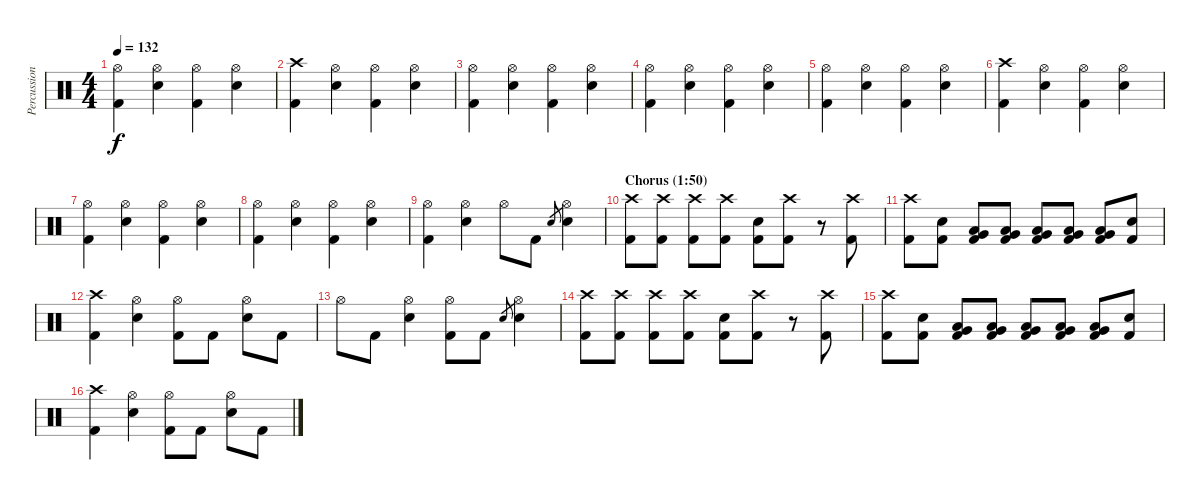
\track ("Percussion" "Percussion") {instrument percussion}
\staff {score}
\articulation defaults
\ts (4 4)
\tempo 132
\clef neutral
\ks c
("Kick (hit) 2" "Hi-Hat (open)").4{dy f} ("Electric Snare (hit)" "Hi-Hat (open)").4 ("Kick (hit) 2" "Hi-Hat (open)").4 ("Electric Snare (hit)" "Hi-Hat (open)").4 |
("Kick (hit) 2" "Crash high (hit)").4 ("Electric Snare (hit)" "Hi-Hat (open)").4 ("Kick (hit) 2" "Hi-Hat (open)").4 ("Electric Snare (hit)" "Hi-Hat (open)").4 |
("Kick (hit) 2" "Hi-Hat (open)").4 ("Electric Snare (hit)" "Hi-Hat (open)").4 ("Kick (hit) 2" "Hi-Hat (open)").4 ("Electric Snare (hit)" "Hi-Hat (open)").4 |
("Kick (hit) 2" "Hi-Hat (open)").4 ("Electric Snare (hit)" "Hi-Hat (open)").4 ("Kick (hit) 2" "Hi-Hat (open)").4 ("Electric Snare (hit)" "Hi-Hat (open)").4 |
("Kick (hit) 2" "Hi-Hat (open)").4 ("Electric Snare (hit)" "Hi-Hat (open)").4 ("Kick (hit) 2" "Hi-Hat (open)").4 ("Electric Snare (hit)" "Hi-Hat (open)").4 |
("Kick (hit) 2" "Crash high (hit)").4 ("Electric Snare (hit)" "Hi-Hat (open)").4 ("Kick (hit) 2" "Hi-Hat (open)").4 ("Electric Snare (hit)" "Hi-Hat (open)").4 |
("Kick (hit) 2" "Hi-Hat (open)").4 ("Electric Snare (hit)" "Hi-Hat (open)").4 ("Kick (hit) 2" "Hi-Hat (open)").4 ("Electric Snare (hit)" "Hi-Hat (open)").4 |
("Kick (hit) 2" "Hi-Hat (open)").4 ("Electric Snare (hit)" "Hi-Hat (open)").4 ("Kick (hit) 2" "Hi-Hat (open)").4 ("Electric Snare (hit)" "Hi-Hat (open)").4 |
("Kick (hit) 2" "Hi-Hat (open)").4 ("Electric Snare (hit)" "Hi-Hat (open)").4 "Hi-Hat (open)".8 "Kick (hit) 2".8 "Electric Snare (hit)".8{gr} ("Electric Snare (hit)" "Hi-Hat (open)").4 |
\section ("" "Chorus (1:50)")
("Kick (hit) 2" "Crash high (hit)").8 ("Kick (hit) 2" "Crash high (hit)").8 ("Kick (hit) 2" "Crash high (hit)").8 ("Kick (hit) 2" "Crash high (hit)").8 ("Kick (hit) 2" "Electric Snare (hit)").8 ("Kick (hit) 2" "Crash high (hit)").8 r.8 ("Kick (hit) 2" "Crash high (hit)").8 |
("Kick (hit) 2" "Crash high (hit)").8 ("Kick (hit) 2" "Electric Snare (hit)").8 ("Kick (hit) 2" "Low Tom (hit)" "Very Low Tom (hit)").8 ("Kick (hit) 2" "Low Tom (hit)" "Very Low Tom (hit)").8 ("Kick (hit) 2" "Low Tom (hit)" "Very Low Tom (hit)").8 ("Kick (hit) 2" "Low Tom (hit)" "Very Low Tom (hit)").8 ("Kick (hit) 2" "Low Tom (hit)" "Very Low Tom (hit)").8 ("Kick (hit) 2" "Electric Snare (hit)").8 |
("Kick (hit) 2" "Crash high (hit)").4 ("Electric Snare (hit)" "Hi-Hat (open)").4 ("Kick (hit) 2" "Hi-Hat (open)").8 "Kick (hit) 2".8 ("Electric Snare (hit)" "Hi-Hat (open)").8 "Kick (hit) 2".8 |
"Hi-Hat (open)".8 "Kick (hit) 2".8 ("Electric Snare (hit)" "Hi-Hat (open)").4 ("Kick (hit) 2" "Hi-Hat (open)").8 "Kick (hit) 2".8 "Electric Snare (hit)".8{gr} ("Electric Snare (hit)" "Hi-Hat (open)").4 |
("Kick (hit) 2" "Crash high (hit)").8 ("Kick (hit) 2" "Crash high (hit)").8 ("Kick (hit) 2" "Crash high (hit)").8 ("Kick (hit) 2" "Crash high (hit)").8 ("Kick (hit) 2" "Electric Snare (hit)").8 ("Kick (hit) 2" "Crash high (hit)").8 r.8 ("Kick (hit) 2" "Crash high (hit)").8 |
("Kick (hit) 2" "Crash high (hit)").8 ("Kick (hit) 2" "Electric Snare (hit)").8 ("Kick (hit) 2" "Low Tom (hit)" "Very Low Tom (hit)").8 ("Kick (hit) 2" "Low Tom (hit)" "Very Low Tom (hit)").8 ("Kick (hit) 2" "Low Tom (hit)" "Very Low Tom (hit)").8 ("Kick (hit) 2" "Low Tom (hit)" "Very Low Tom (hit)").8 ("Kick (hit) 2" "Low Tom (hit)" "Very Low Tom (hit)").8 ("Kick (hit) 2" "Electric Snare (hit)").8 |
("Kick (hit) 2" "Crash high (hit)").4 ("Electric Snare (hit)" "Hi-Hat (open)").4 ("Kick (hit) 2" "Hi-Hat (open)").8 "Kick (hit) 2".8 ("Electric Snare (hit)" "Hi-Hat (open)").8 "Kick (hit) 2".8
